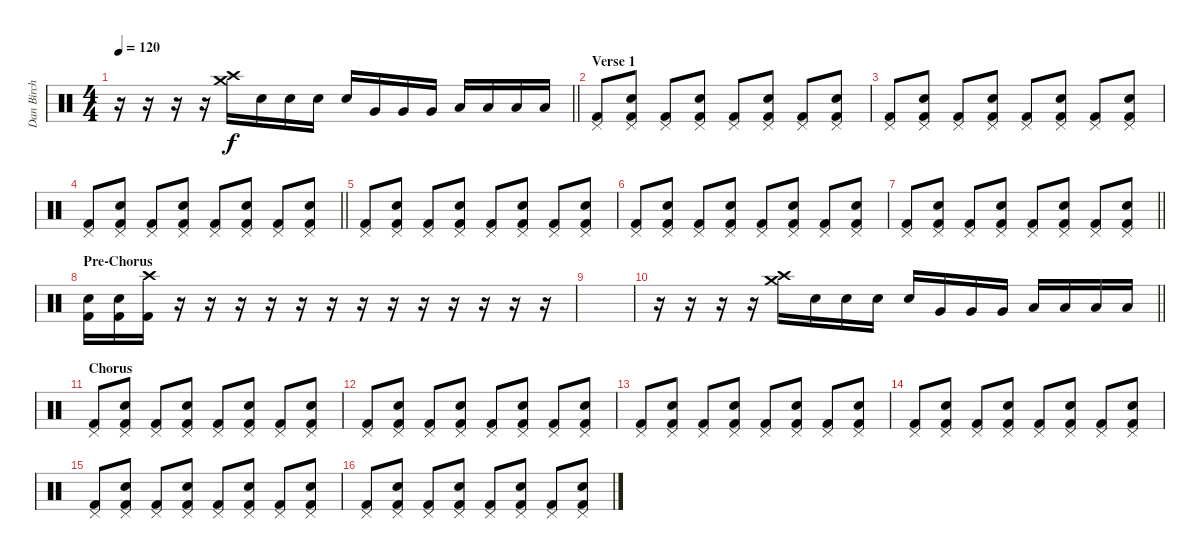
\track ("Dan Birch" "Dan Birch") {instrument percussion}
\staff {score}
\articulation defaults
\ts (4 4)
\tempo 120
\clef neutral
\barLineRight lightlight
\ks c
r.16{dy f} r.16 r.16 r.16 ("Crash high (hit)" "Crash medium (hit)").16 "Snare (hit) 2".16 "Snare (hit) 2".16 "Snare (hit) 2".16 "Snare (hit) 2".16 "Very Low Tom (hit)".16 "Very Low Tom (hit)".16 "Very Low Tom (hit)".16 "Low Tom (hit)".16 "Low Tom (hit)".16 "Low Tom (hit)".16 "Low Floor Tom (hit)".16 |
\section ("" "Verse 1")
("Pedal Hi-Hat (hit)" "Kick (hit) 2").8 ("Pedal Hi-Hat (hit)" "Snare (hit) 2" "Kick (hit) 2").8 ("Pedal Hi-Hat (hit)" "Kick (hit) 2").8 ("Pedal Hi-Hat (hit)" "Snare (hit) 2" "Kick (hit) 2").8 ("Pedal Hi-Hat (hit)" "Kick (hit) 2").8 ("Pedal Hi-Hat (hit)" "Snare (hit) 2" "Kick (hit) 2").8 ("Pedal Hi-Hat (hit)" "Kick (hit) 2").8 ("Pedal Hi-Hat (hit)" "Snare (hit) 2" "Kick (hit) 2").8 |
("Pedal Hi-Hat (hit)" "Kick (hit) 2").8 ("Pedal Hi-Hat (hit)" "Snare (hit) 2" "Kick (hit) 2").8 ("Pedal Hi-Hat (hit)" "Kick (hit) 2").8 ("Pedal Hi-Hat (hit)" "Snare (hit) 2" "Kick (hit) 2").8 ("Pedal Hi-Hat (hit)" "Kick (hit) 2").8 ("Pedal Hi-Hat (hit)" "Snare (hit) 2" "Kick (hit) 2").8 ("Pedal Hi-Hat (hit)" "Kick (hit) 2").8 ("Pedal Hi-Hat (hit)" "Snare (hit) 2" "Kick (hit) 2").8 |
\barLineRight lightlight
("Pedal Hi-Hat (hit)" "Kick (hit) 2").8 ("Pedal Hi-Hat (hit)" "Snare (hit) 2" "Kick (hit) 2").8 ("Pedal Hi-Hat (hit)" "Kick (hit) 2").8 ("Pedal Hi-Hat (hit)" "Snare (hit) 2" "Kick (hit) 2").8 ("Pedal Hi-Hat (hit)" "Kick (hit) 2").8 ("Pedal Hi-Hat (hit)" "Snare (hit) 2" "Kick (hit) 2").8 ("Pedal Hi-Hat (hit)" "Kick (hit) 2").8 ("Pedal Hi-Hat (hit)" "Snare (hit) 2" "Kick (hit) 2").8 |
("Pedal Hi-Hat (hit)" "Kick (hit) 2").8 ("Pedal Hi-Hat (hit)" "Snare (hit) 2" "Kick (hit) 2").8 ("Pedal Hi-Hat (hit)" "Kick (hit) 2").8 ("Pedal Hi-Hat (hit)" "Snare (hit) 2" "Kick (hit) 2").8 ("Pedal Hi-Hat (hit)" "Kick (hit) 2").8 ("Pedal Hi-Hat (hit)" "Snare (hit) 2" "Kick (hit) 2").8 ("Pedal Hi-Hat (hit)" "Kick (hit) 2").8 ("Pedal Hi-Hat (hit)" "Snare (hit) 2" "Kick (hit) 2").8 |
("Pedal Hi-Hat (hit)" "Kick (hit) 2").8 ("Pedal Hi-Hat (hit)" "Snare (hit) 2" "Kick (hit) 2").8 ("Pedal Hi-Hat (hit)" "Kick (hit) 2").8 ("Pedal Hi-Hat (hit)" "Snare (hit) 2" "Kick (hit) 2").8 ("Pedal Hi-Hat (hit)" "Kick (hit) 2").8 ("Pedal Hi-Hat (hit)" "Snare (hit) 2" "Kick (hit) 2").8 ("Pedal Hi-Hat (hit)" "Kick (hit) 2").8 ("Pedal Hi-Hat (hit)" "Snare (hit) 2" "Kick (hit) 2").8 |
\barLineRight lightlight
("Pedal Hi-Hat (hit)" "Kick (hit) 2").8 ("Pedal Hi-Hat (hit)" "Snare (hit) 2" "Kick (hit) 2").8 ("Pedal Hi-Hat (hit)" "Kick (hit) 2").8 ("Pedal Hi-Hat (hit)" "Snare (hit) 2" "Kick (hit) 2").8 ("Pedal Hi-Hat (hit)" "Kick (hit) 2").8 ("Pedal Hi-Hat (hit)" "Snare (hit) 2" "Kick (hit) 2").8 ("Pedal Hi-Hat (hit)" "Kick (hit) 2").8 ("Pedal Hi-Hat (hit)" "Snare (hit) 2" "Kick (hit) 2").8 |
\section ("" "Pre-Chorus")
("Snare (hit) 2" "Kick (hit) 2").16 ("Snare (hit) 2" "Kick (hit) 2").16 ("Crash high (hit)" "Kick (hit) 2").16 r.16 r.16 r.16 r.16 r.16 r.16 r.16 r.16 r.16 r.16 r.16 r.16 r.16 |
|
\barLineRight lightlight
r.16 r.16 r.16 r.16 ("Crash high (hit)" "Crash medium (hit)").16 "Snare (hit) 2".16 "Snare (hit) 2".16 "Snare (hit) 2".16 "Snare (hit) 2".16 "Very Low Tom (hit)".16 "Very Low Tom (hit)".16 "Very Low Tom (hit)".16 "Low Tom (hit)".16 "Low Tom (hit)".16 "Low Tom (hit)".16 "Low Floor Tom (hit)".16 |
\section ("" "Chorus")
("Pedal Hi-Hat (hit)" "Kick (hit) 2").8 ("Pedal Hi-Hat (hit)" "Snare (hit) 2" "Kick (hit) 2").8 ("Pedal Hi-Hat (hit)" "Kick (hit) 2").8 ("Pedal Hi-Hat (hit)" "Snare (hit) 2" "Kick (hit) 2").8 ("Pedal Hi-Hat (hit)" "Kick (hit) 2").8 ("Pedal Hi-Hat (hit)" "Snare (hit) 2" "Kick (hit) 2").8 ("Pedal Hi-Hat (hit)" "Kick (hit) 2").8 ("Pedal Hi-Hat (hit)" "Snare (hit) 2" "Kick (hit) 2").8 |
("Pedal Hi-Hat (hit)" "Kick (hit) 2").8 ("Pedal Hi-Hat (hit)" "Snare (hit) 2" "Kick (hit) 2").8 ("Pedal Hi-Hat (hit)" "Kick (hit) 2").8 ("Pedal Hi-Hat (hit)" "Snare (hit) 2" "Kick (hit) 2").8 ("Pedal Hi-Hat (hit)" "Kick (hit) 2").8 ("Pedal Hi-Hat (hit)" "Snare (hit) 2" "Kick (hit) 2").8 ("Pedal Hi-Hat (hit)" "Kick (hit) 2").8 ("Pedal Hi-Hat (hit)" "Snare (hit) 2" "Kick (hit) 2").8 |
("Pedal Hi-Hat (hit)" "Kick (hit) 2").8 ("Pedal Hi-Hat (hit)" "Snare (hit) 2" "Kick (hit) 2").8 ("Pedal Hi-Hat (hit)" "Kick (hit) 2").8 ("Pedal Hi-Hat (hit)" "Snare (hit) 2" "Kick (hit) 2").8 ("Pedal Hi-Hat (hit)" "Kick (hit) 2").8 ("Pedal Hi-Hat (hit)" "Snare (hit) 2" "Kick (hit) 2").8 ("Pedal Hi-Hat (hit)" "Kick (hit) 2").8 ("Pedal Hi-Hat (hit)" "Snare (hit) 2" "Kick (hit) 2").8 |
("Pedal Hi-Hat (hit)" "Kick (hit) 2").8 ("Pedal Hi-Hat (hit)" "Snare (hit) 2" "Kick (hit) 2").8 ("Pedal Hi-Hat (hit)" "Kick (hit) 2").8 ("Pedal Hi-Hat (hit)" "Snare (hit) 2" "Kick (hit) 2").8 ("Pedal Hi-Hat (hit)" "Kick (hit) 2").8 ("Pedal Hi-Hat (hit)" "Snare (hit) 2" "Kick (hit) 2").8 ("Pedal Hi-Hat (hit)" "Kick (hit) 2").8 ("Pedal Hi-Hat (hit)" "Snare (hit) 2" "Kick (hit) 2").8 |
("Pedal Hi-Hat (hit)" "Kick (hit) 2").8 ("Pedal Hi-Hat (hit)" "Snare (hit) 2" "Kick (hit) 2").8 ("Pedal Hi-Hat (hit)" "Kick (hit) 2").8 ("Pedal Hi-Hat (hit)" "Snare (hit) 2" "Kick (hit) 2").8 ("Pedal Hi-Hat (hit)" "Kick (hit) 2").8 ("Pedal Hi-Hat (hit)" "Snare (hit) 2" "Kick (hit) 2").8 ("Pedal Hi-Hat (hit)" "Kick (hit) 2").8 ("Pedal Hi-Hat (hit)" "Snare (hit) 2" "Kick (hit) 2").8 |
("Pedal Hi-Hat (hit)" "Kick (hit) 2").8 ("Pedal Hi-Hat (hit)" "Snare (hit) 2" "Kick (hit) 2").8 ("Pedal Hi-Hat (hit)" "Kick (hit) 2").8 ("Pedal Hi-Hat (hit)" "Snare (hit) 2" "Kick (hit) 2").8 ("Pedal Hi-Hat (hit)" "Kick (hit) 2").8 ("Pedal Hi-Hat (hit)" "Snare (hit) 2" "Kick (hit) 2").8 ("Pedal Hi-Hat (hit)" "Kick (hit) 2").8 ("Pedal Hi-Hat (hit)" "Snare (hit) 2" "Kick (hit) 2").8
